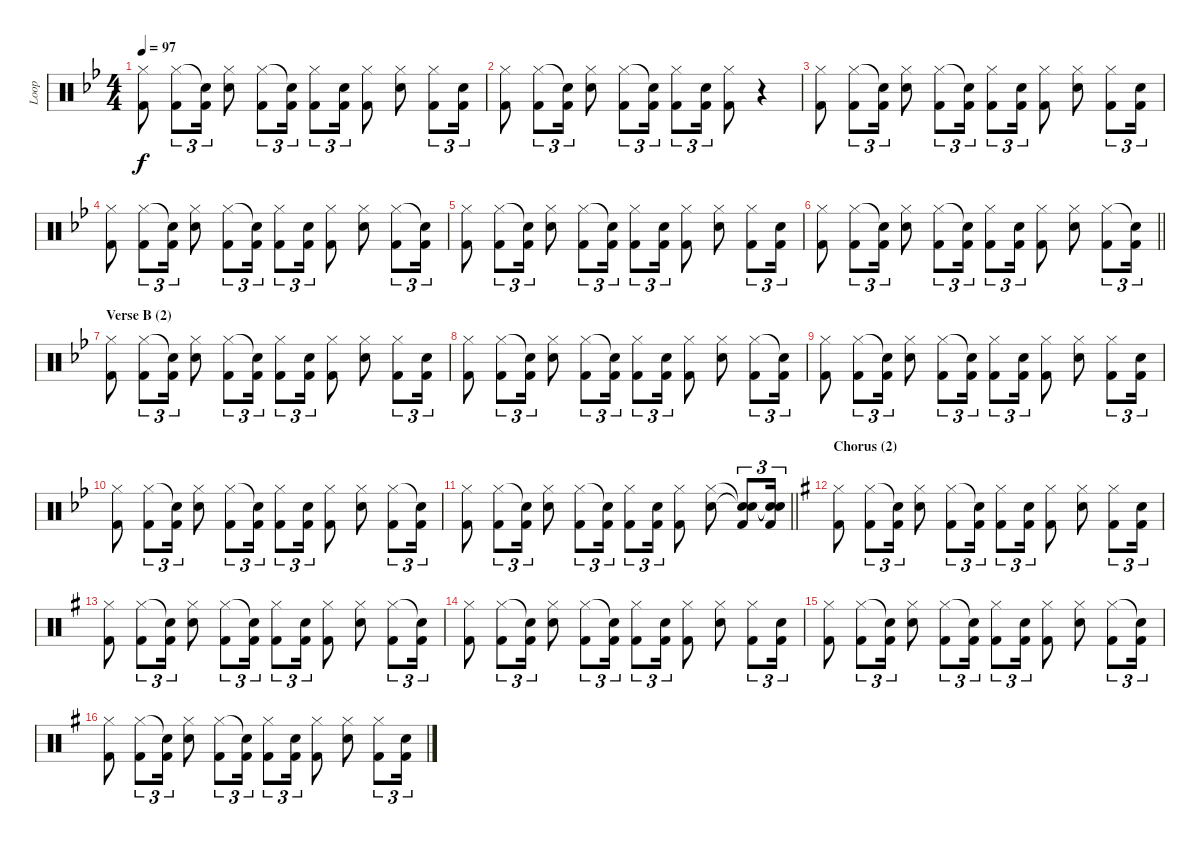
\track ("Loop" "Loop") {instrument percussion}
\staff {score}
\articulation defaults
\ts (4 4)
\tempo 97
\clef neutral
\ks bb
("Hi-Hat (closed)" "Kick (hit) 2").8{dy f} ("Hi-Hat (closed)" "Kick (hit) 2").8{tu (3 2)} ("Snare (hit)"{t} "Kick (hit) 2").16{tu (3 2)} ("Hi-Hat (closed)" "Electric Snare (hit)").8 ("Hi-Hat (closed)" "Kick (hit) 2").8{tu (3 2)} ("Snare (hit)"{t} "Kick (hit) 2").16{tu (3 2)} ("Hi-Hat (closed)" "Kick (hit) 2").8{tu (3 2)} ("Electric Snare (hit)" "Kick (hit) 2").16{tu (3 2)} ("Hi-Hat (closed)" "Kick (hit) 2").8 ("Hi-Hat (closed)" "Electric Snare (hit)").8 ("Hi-Hat (closed)" "Kick (hit) 2").8{tu (3 2)} ("Electric Snare (hit)" "Kick (hit) 2").16{tu (3 2)} |
("Hi-Hat (closed)" "Kick (hit) 2").8 ("Hi-Hat (closed)" "Kick (hit) 2").8{tu (3 2)} ("Snare (hit)"{t} "Kick (hit) 2").16{tu (3 2)} ("Hi-Hat (closed)" "Electric Snare (hit)").8 ("Hi-Hat (closed)" "Kick (hit) 2").8{tu (3 2)} ("Snare (hit)"{t} "Kick (hit) 2").16{tu (3 2)} ("Hi-Hat (closed)" "Kick (hit) 2").8{tu (3 2)} ("Electric Snare (hit)" "Kick (hit) 2").16{tu (3 2)} ("Hi-Hat (closed)" "Kick (hit) 2").8 r.4 |
("Hi-Hat (closed)" "Kick (hit) 2").8 ("Hi-Hat (closed)" "Kick (hit) 2").8{tu (3 2)} ("Snare (hit)"{t} "Kick (hit) 2").16{tu (3 2)} ("Hi-Hat (closed)" "Electric Snare (hit)").8 ("Hi-Hat (closed)" "Kick (hit) 2").8{tu (3 2)} ("Snare (hit)"{t} "Kick (hit) 2").16{tu (3 2)} ("Hi-Hat (closed)" "Kick (hit) 2").8{tu (3 2)} ("Electric Snare (hit)" "Kick (hit) 2").16{tu (3 2)} ("Hi-Hat (closed)" "Kick (hit) 2").8 ("Hi-Hat (closed)" "Electric Snare (hit)").8 ("Hi-Hat (closed)" "Kick (hit) 2").8{tu (3 2)} ("Electric Snare (hit)" "Kick (hit) 2").16{tu (3 2)} |
("Hi-Hat (closed)" "Kick (hit) 2").8 ("Hi-Hat (closed)" "Kick (hit) 2").8{tu (3 2)} ("Snare (hit)"{t} "Kick (hit) 2").16{tu (3 2)} ("Hi-Hat (closed)" "Electric Snare (hit)").8 ("Hi-Hat (closed)" "Kick (hit) 2").8{tu (3 2)} ("Snare (hit)"{t} "Kick (hit) 2").16{tu (3 2)} ("Hi-Hat (closed)" "Kick (hit) 2").8{tu (3 2)} ("Electric Snare (hit)" "Kick (hit) 2").16{tu (3 2)} ("Hi-Hat (closed)" "Kick (hit) 2").8 ("Hi-Hat (closed)" "Electric Snare (hit)").8 ("Hi-Hat (closed)" "Kick (hit) 2").8{tu (3 2)} ("Snare (hit)"{t} "Kick (hit) 2").16{tu (3 2)} |
("Hi-Hat (closed)" "Kick (hit) 2").8 ("Hi-Hat (closed)" "Kick (hit) 2").8{tu (3 2)} ("Snare (hit)"{t} "Kick (hit) 2").16{tu (3 2)} ("Hi-Hat (closed)" "Electric Snare (hit)").8 ("Hi-Hat (closed)" "Kick (hit) 2").8{tu (3 2)} ("Snare (hit)"{t} "Kick (hit) 2").16{tu (3 2)} ("Hi-Hat (closed)" "Kick (hit) 2").8{tu (3 2)} ("Electric Snare (hit)" "Kick (hit) 2").16{tu (3 2)} ("Hi-Hat (closed)" "Kick (hit) 2").8 ("Hi-Hat (closed)" "Electric Snare (hit)").8 ("Hi-Hat (closed)" "Kick (hit) 2").8{tu (3 2)} ("Electric Snare (hit)" "Kick (hit) 2").16{tu (3 2)} |
\barLineRight lightlight
("Hi-Hat (closed)" "Kick (hit) 2").8 ("Hi-Hat (closed)" "Kick (hit) 2").8{tu (3 2)} ("Snare (hit)"{t} "Kick (hit) 2").16{tu (3 2)} ("Hi-Hat (closed)" "Electric Snare (hit)").8 ("Hi-Hat (closed)" "Kick (hit) 2").8{tu (3 2)} ("Snare (hit)"{t} "Kick (hit) 2").16{tu (3 2)} ("Hi-Hat (closed)" "Kick (hit) 2").8{tu (3 2)} ("Electric Snare (hit)" "Kick (hit) 2").16{tu (3 2)} ("Hi-Hat (closed)" "Kick (hit) 2").8 ("Hi-Hat (closed)" "Electric Snare (hit)").8 ("Hi-Hat (closed)" "Kick (hit) 2").8{tu (3 2)} ("Snare (hit)"{t} "Kick (hit) 2").16{tu (3 2)} |
\section ("" "Verse B (2)")
("Hi-Hat (closed)" "Kick (hit) 2").8 ("Hi-Hat (closed)" "Kick (hit) 2").8{tu (3 2)} ("Snare (hit)"{t} "Kick (hit) 2").16{tu (3 2)} ("Hi-Hat (closed)" "Electric Snare (hit)").8 ("Hi-Hat (closed)" "Kick (hit) 2").8{tu (3 2)} ("Snare (hit)"{t} "Kick (hit) 2").16{tu (3 2)} ("Hi-Hat (closed)" "Kick (hit) 2").8{tu (3 2)} ("Electric Snare (hit)" "Kick (hit) 2").16{tu (3 2)} ("Hi-Hat (closed)" "Kick (hit) 2").8 ("Hi-Hat (closed)" "Electric Snare (hit)").8 ("Hi-Hat (closed)" "Kick (hit) 2").8{tu (3 2)} ("Electric Snare (hit)" "Kick (hit) 2").16{tu (3 2)} |
("Hi-Hat (closed)" "Kick (hit) 2").8 ("Hi-Hat (closed)" "Kick (hit) 2").8{tu (3 2)} ("Snare (hit)"{t} "Kick (hit) 2").16{tu (3 2)} ("Hi-Hat (closed)" "Electric Snare (hit)").8 ("Hi-Hat (closed)" "Kick (hit) 2").8{tu (3 2)} ("Snare (hit)"{t} "Kick (hit) 2").16{tu (3 2)} ("Hi-Hat (closed)" "Kick (hit) 2").8{tu (3 2)} ("Electric Snare (hit)" "Kick (hit) 2").16{tu (3 2)} ("Hi-Hat (closed)" "Kick (hit) 2").8 ("Hi-Hat (closed)" "Electric Snare (hit)").8 ("Hi-Hat (closed)" "Kick (hit) 2").8{tu (3 2)} ("Snare (hit)"{t} "Kick (hit) 2").16{tu (3 2)} |
("Hi-Hat (closed)" "Kick (hit) 2").8 ("Hi-Hat (closed)" "Kick (hit) 2").8{tu (3 2)} ("Snare (hit)"{t} "Kick (hit) 2").16{tu (3 2)} ("Hi-Hat (closed)" "Electric Snare (hit)").8 ("Hi-Hat (closed)" "Kick (hit) 2").8{tu (3 2)} ("Snare (hit)"{t} "Kick (hit) 2").16{tu (3 2)} ("Hi-Hat (closed)" "Kick (hit) 2").8{tu (3 2)} ("Electric Snare (hit)" "Kick (hit) 2").16{tu (3 2)} ("Hi-Hat (closed)" "Kick (hit) 2").8 ("Hi-Hat (closed)" "Electric Snare (hit)").8 ("Hi-Hat (closed)" "Kick (hit) 2").8{tu (3 2)} ("Electric Snare (hit)" "Kick (hit) 2").16{tu (3 2)} |
("Hi-Hat (closed)" "Kick (hit) 2").8 ("Hi-Hat (closed)" "Kick (hit) 2").8{tu (3 2)} ("Snare (hit)"{t} "Kick (hit) 2").16{tu (3 2)} ("Hi-Hat (closed)" "Electric Snare (hit)").8 ("Hi-Hat (closed)" "Kick (hit) 2").8{tu (3 2)} ("Snare (hit)"{t} "Kick (hit) 2").16{tu (3 2)} ("Hi-Hat (closed)" "Kick (hit) 2").8{tu (3 2)} ("Electric Snare (hit)" "Kick (hit) 2").16{tu (3 2)} ("Hi-Hat (closed)" "Kick (hit) 2").8 ("Hi-Hat (closed)" "Electric Snare (hit)").8 ("Hi-Hat (closed)" "Kick (hit) 2").8{tu (3 2)} ("Snare (hit)"{t} "Kick (hit) 2").16{tu (3 2)} |
\barLineRight lightlight
("Hi-Hat (closed)" "Kick (hit) 2").8 ("Hi-Hat (closed)" "Kick (hit) 2").8{tu (3 2)} ("Snare (hit)"{t} "Kick (hit) 2").16{tu (3 2)} ("Hi-Hat (closed)" "Electric Snare (hit)").8 ("Hi-Hat (closed)" "Kick (hit) 2").8{tu (3 2)} ("Snare (hit)"{t} "Kick (hit) 2").16{tu (3 2)} ("Hi-Hat (closed)" "Kick (hit) 2").8{tu (3 2)} ("Electric Snare (hit)" "Kick (hit) 2").16{tu (3 2)} ("Hi-Hat (closed)" "Kick (hit) 2").8 ("Hi-Hat (closed)" "Electric Snare (hit)").8 ("Snare (hit)"{t} "Snare (hit)"{t} "Kick (hit) 2").8{tu (3 2)} ("Snare (hit)"{t} "Snare (hit)"{t} "Kick (hit) 2").16{tu (3 2)} |
\section ("" "Chorus (2)")
\ks g
("Hi-Hat (closed)" "Kick (hit) 2").8 ("Hi-Hat (closed)" "Kick (hit) 2").8{tu (3 2)} ("Snare (hit)"{t} "Kick (hit) 2").16{tu (3 2)} ("Hi-Hat (closed)" "Electric Snare (hit)").8 ("Hi-Hat (closed)" "Kick (hit) 2").8{tu (3 2)} ("Snare (hit)"{t} "Kick (hit) 2").16{tu (3 2)} ("Hi-Hat (closed)" "Kick (hit) 2").8{tu (3 2)} ("Electric Snare (hit)" "Kick (hit) 2").16{tu (3 2)} ("Hi-Hat (closed)" "Kick (hit) 2").8 ("Hi-Hat (closed)" "Electric Snare (hit)").8 ("Hi-Hat (closed)" "Kick (hit) 2").8{tu (3 2)} ("Electric Snare (hit)" "Kick (hit) 2").16{tu (3 2)} |
("Hi-Hat (closed)" "Kick (hit) 2").8 ("Hi-Hat (closed)" "Kick (hit) 2").8{tu (3 2)} ("Snare (hit)"{t} "Kick (hit) 2").16{tu (3 2)} ("Hi-Hat (closed)" "Electric Snare (hit)").8 ("Hi-Hat (closed)" "Kick (hit) 2").8{tu (3 2)} ("Snare (hit)"{t} "Kick (hit) 2").16{tu (3 2)} ("Hi-Hat (closed)" "Kick (hit) 2").8{tu (3 2)} ("Electric Snare (hit)" "Kick (hit) 2").16{tu (3 2)} ("Hi-Hat (closed)" "Kick (hit) 2").8 ("Hi-Hat (closed)" "Electric Snare (hit)").8 ("Hi-Hat (closed)" "Kick (hit) 2").8{tu (3 2)} ("Snare (hit)"{t} "Kick (hit) 2").16{tu (3 2)} |
("Hi-Hat (closed)" "Kick (hit) 2").8 ("Hi-Hat (closed)" "Kick (hit) 2").8{tu (3 2)} ("Snare (hit)"{t} "Kick (hit) 2").16{tu (3 2)} ("Hi-Hat (closed)" "Electric Snare (hit)").8 ("Hi-Hat (closed)" "Kick (hit) 2").8{tu (3 2)} ("Snare (hit)"{t} "Kick (hit) 2").16{tu (3 2)} ("Hi-Hat (closed)" "Kick (hit) 2").8{tu (3 2)} ("Electric Snare (hit)" "Kick (hit) 2").16{tu (3 2)} ("Hi-Hat (closed)" "Kick (hit) 2").8 ("Hi-Hat (closed)" "Electric Snare (hit)").8 ("Hi-Hat (closed)" "Kick (hit) 2").8{tu (3 2)} ("Electric Snare (hit)" "Kick (hit) 2").16{tu (3 2)} |
("Hi-Hat (closed)" "Kick (hit) 2").8 ("Hi-Hat (closed)" "Kick (hit) 2").8{tu (3 2)} ("Snare (hit)"{t} "Kick (hit) 2").16{tu (3 2)} ("Hi-Hat (closed)" "Electric Snare (hit)").8 ("Hi-Hat (closed)" "Kick (hit) 2").8{tu (3 2)} ("Snare (hit)"{t} "Kick (hit) 2").16{tu (3 2)} ("Hi-Hat (closed)" "Kick (hit) 2").8{tu (3 2)} ("Electric Snare (hit)" "Kick (hit) 2").16{tu (3 2)} ("Hi-Hat (closed)" "Kick (hit) 2").8 ("Hi-Hat (closed)" "Electric Snare (hit)").8 ("Hi-Hat (closed)" "Kick (hit) 2").8{tu (3 2)} ("Snare (hit)"{t} "Kick (hit) 2").16{tu (3 2)} |
("Hi-Hat (closed)" "Kick (hit) 2").8 ("Hi-Hat (closed)" "Kick (hit) 2").8{tu (3 2)} ("Snare (hit)"{t} "Kick (hit) 2").16{tu (3 2)} ("Hi-Hat (closed)" "Electric Snare (hit)").8 ("Hi-Hat (closed)" "Kick (hit) 2").8{tu (3 2)} ("Snare (hit)"{t} "Kick (hit) 2").16{tu (3 2)} ("Hi-Hat (closed)" "Kick (hit) 2").8{tu (3 2)} ("Electric Snare (hit)" "Kick (hit) 2").16{tu (3 2)} ("Hi-Hat (closed)" "Kick (hit) 2").8 ("Hi-Hat (closed)" "Electric Snare (hit)").8 ("Hi-Hat (closed)" "Kick (hit) 2").8{tu (3 2)} ("Electric Snare (hit)" "Kick (hit) 2").16{tu (3 2)}
